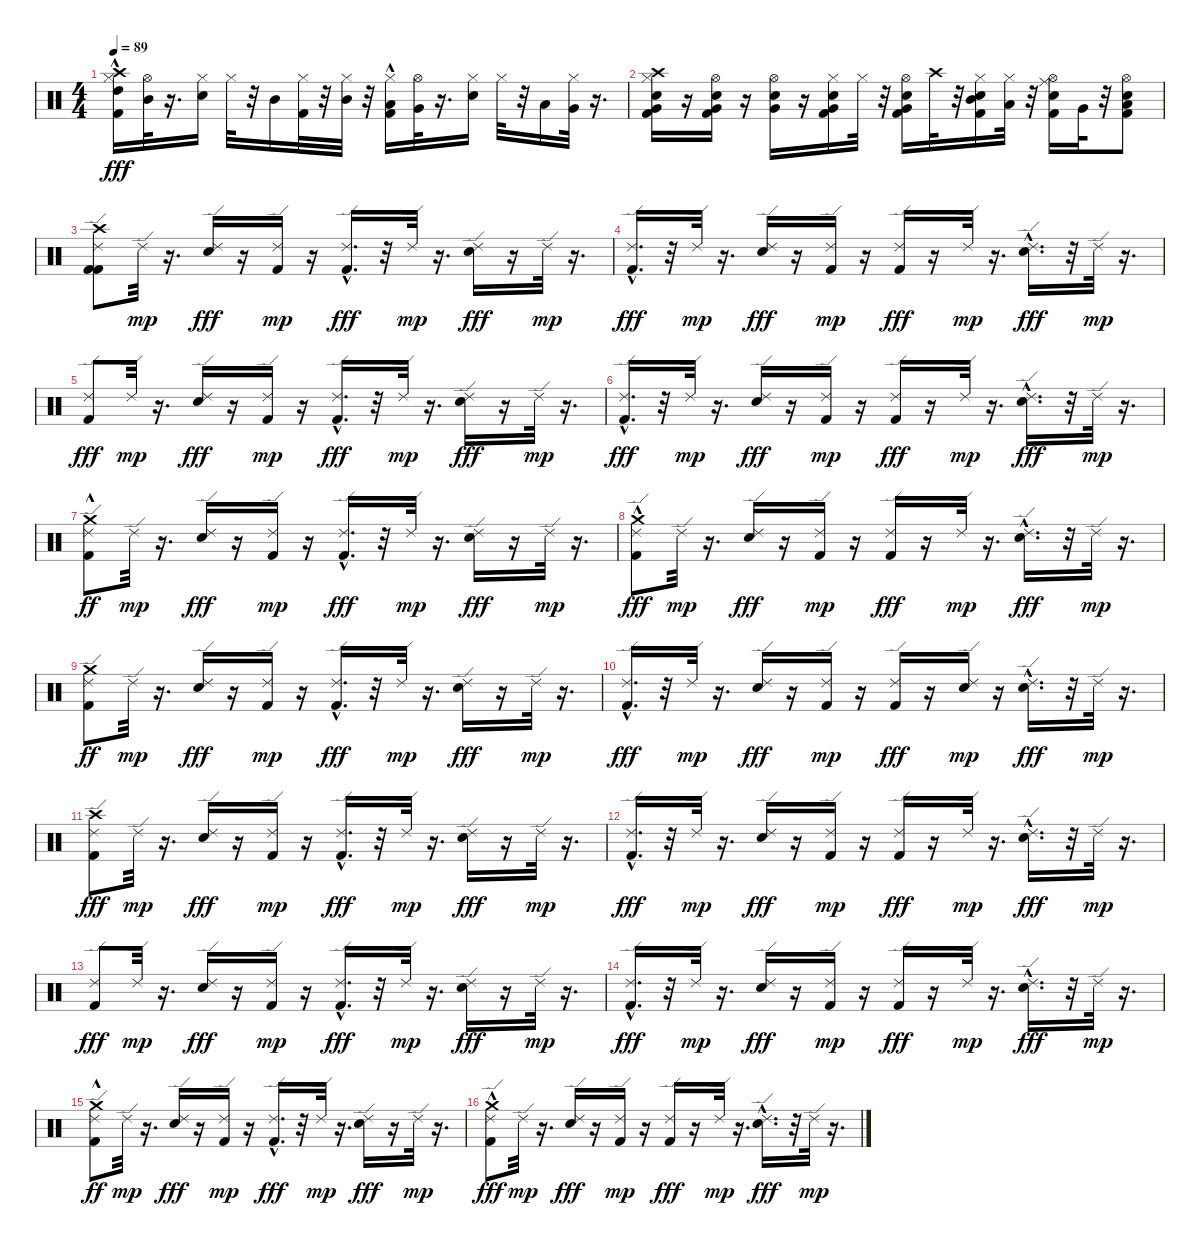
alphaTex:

\track "" {instrument percussion}
\staff {score}
\articulation defaults
\ts (4 4)
\tempo 89
\clef neutral
\ks c
("High Tom (hit)" "Crash high (hit)" "Kick (hit) 2"{hac} "Hi-Hat (closed)").16{dy fff} ("Mid Tom (hit)" "Hi-Hat (open)").32 r.16{d} ("Snare (hit) 2" "Hi-Hat (closed)").16 "Hi-Hat (closed)".32 r.32 "Mid Tom (hit)".16 ("Kick (hit) 2" "Hi-Hat (closed)").32 r.32 ("Mid Tom (hit)" "Hi-Hat (closed)").32 r.32 ("Low Tom (hit)" "Kick (hit) 2"{hac} "Hi-Hat (closed)").16 ("Very Low Tom (hit)" "Hi-Hat (open)").32 r.16{d} ("Snare (hit) 2" "Hi-Hat (closed)").16 "Hi-Hat (closed)".32 r.32 "Low Tom (hit)".16 ("Very Low Tom (hit)" "Hi-Hat (closed)").32 r.16{d} |
("Crash high (hit)" "Very Low Tom (hit)" "Kick (hit) 2" "Snare (hit) 2" "Hi-Hat (closed)").16 r.16 ("Very Low Tom (hit)" "Kick (hit) 2" "Snare (hit) 2" "Hi-Hat (open)").16 r.16 ("Very Low Tom (hit)" "Snare (hit) 2" "Hi-Hat (open)").16 r.16 ("Very Low Tom (hit)" "Kick (hit) 2" "Snare (hit) 2" "Hi-Hat (closed)").16 "Hi-Hat (closed)".32 r.32 ("Very Low Tom (hit)" "Kick (hit) 2" "Snare (hit) 2" "Hi-Hat (open)").16 "Crash high (hit)".32 r.32 ("Mid Tom (hit)" "Kick (hit) 2" "Snare (hit) 2" "Hi-Hat (closed)").16 ("Low Tom (hit)" "Hi-Hat (closed)").32 r.32 ("Ride (middle)" "Kick (hit) 2" "Snare (hit) 2" "Hi-Hat (open)").16 "Very Low Tom (hit)".32 r.32 ("Low Floor Tom (hit)" "Kick (hit) 2" "Snare (hit) 2" "Hi-Hat (open)").8 |
("Kick (hit) 2" "Kick (hit) 2" "Crash high (hit)" "Ride (edge) 2").8 "Ride (edge) 2".32{dy mp} r.16{d} ("Snare (hit) 2" "Ride (edge) 2").16{dy fff} r.16 ("Kick (hit) 2" "Ride (edge) 2").16{dy mp} r.16 ("Kick (hit) 2"{hac} "Ride (edge) 2").16{d dy fff} r.32 "Ride (edge) 2".32{dy mp} r.16{d} ("Snare (hit) 2" "Ride (edge) 2").16{dy fff} r.16 "Ride (edge) 2".32{dy mp} r.16{d} |
("Kick (hit) 2"{hac} "Ride (edge) 2").16{d dy fff} r.32 "Ride (edge) 2".32{dy mp} r.16{d} ("Snare (hit) 2" "Ride (edge) 2").16{dy fff} r.16 ("Kick (hit) 2" "Ride (edge) 2").16{dy mp} r.16 ("Kick (hit) 2" "Ride (edge) 2").16{dy fff} r.16 "Ride (edge) 2".32{dy mp} r.16{d} ("Snare (hit) 2"{hac} "Ride (edge) 2").16{d dy fff} r.32 "Ride (edge) 2".32{dy mp} r.16{d} |
("Kick (hit) 2" "Ride (edge) 2").8{dy fff} "Ride (edge) 2".32{dy mp} r.16{d} ("Snare (hit) 2" "Ride (edge) 2").16{dy fff} r.16 ("Kick (hit) 2" "Ride (edge) 2").16{dy mp} r.16 ("Kick (hit) 2"{hac} "Ride (edge) 2").16{d dy fff} r.32 "Ride (edge) 2".32{dy mp} r.16{d} ("Snare (hit) 2" "Ride (edge) 2").16{dy fff} r.16 "Ride (edge) 2".32{dy mp} r.16{d} |
("Kick (hit) 2"{hac} "Ride (edge) 2").16{d dy fff} r.32 "Ride (edge) 2".32{dy mp} r.16{d} ("Snare (hit) 2" "Ride (edge) 2").16{dy fff} r.16 ("Kick (hit) 2" "Ride (edge) 2").16{dy mp} r.16 ("Kick (hit) 2" "Ride (edge) 2").16{dy fff} r.16 "Ride (edge) 2".32{dy mp} r.16{d} ("Snare (hit) 2"{hac} "Ride (edge) 2").16{d dy fff} r.32 "Ride (edge) 2".32{dy mp} r.16{d} |
("Kick (hit) 2" "Ride (edge) 2" "Crash medium (hit)"{hac}).8{dy ff} "Ride (edge) 2".32{dy mp} r.16{d} ("Snare (hit) 2" "Ride (edge) 2").16{dy fff} r.16 ("Kick (hit) 2" "Ride (edge) 2").16{dy mp} r.16 ("Kick (hit) 2"{hac} "Ride (edge) 2").16{d dy fff} r.32 "Ride (edge) 2".32{dy mp} r.16{d} ("Snare (hit) 2" "Ride (edge) 2").16{dy fff} r.16 "Ride (edge) 2".32{dy mp} r.16{d} |
("Kick (hit) 2"{hac} "Ride (edge) 2" "Crash medium (hit)"{hac}).8{dy fff} "Ride (edge) 2".32{dy mp} r.16{d} ("Snare (hit) 2" "Ride (edge) 2").16{dy fff} r.16 ("Kick (hit) 2" "Ride (edge) 2").16{dy mp} r.16 ("Kick (hit) 2" "Ride (edge) 2").16{dy fff} r.16 "Ride (edge) 2".32{dy mp} r.16{d} ("Snare (hit) 2"{hac} "Ride (edge) 2").16{d dy fff} r.32 "Ride (edge) 2".32{dy mp} r.16{d} |
("Kick (hit) 2" "Ride (edge) 2" "Crash medium (hit)").8{dy ff} "Ride (edge) 2".32{dy mp} r.16{d} ("Snare (hit) 2" "Ride (edge) 2").16{dy fff} r.16 ("Kick (hit) 2" "Ride (edge) 2").16{dy mp} r.16 ("Kick (hit) 2"{hac} "Ride (edge) 2").16{d dy fff} r.32 "Ride (edge) 2".32{dy mp} r.16{d} ("Snare (hit) 2" "Ride (edge) 2").16{dy fff} r.16 "Ride (edge) 2".32{dy mp} r.16{d} |
("Kick (hit) 2"{hac} "Ride (edge) 2").16{d dy fff} r.32 "Ride (edge) 2".32{dy mp} r.16{d} ("Snare (hit) 2" "Ride (edge) 2").16{dy fff} r.16 ("Kick (hit) 2" "Ride (edge) 2").16{dy mp} r.16 ("Kick (hit) 2" "Ride (edge) 2").16{dy fff} r.16 ("Snare (hit) 2" "Ride (edge) 2").16{dy mp} r.16 ("Snare (hit) 2"{hac} "Ride (edge) 2").16{d dy fff} r.32 "Ride (edge) 2".32{dy mp} r.16{d} |
("Kick (hit) 2" "Crash high (hit)" "Ride (edge) 2").8{dy fff} "Ride (edge) 2".32{dy mp} r.16{d} ("Snare (hit) 2" "Ride (edge) 2").16{dy fff} r.16 ("Kick (hit) 2" "Ride (edge) 2").16{dy mp} r.16 ("Kick (hit) 2"{hac} "Ride (edge) 2").16{d dy fff} r.32 "Ride (edge) 2".32{dy mp} r.16{d} ("Snare (hit) 2" "Ride (edge) 2").16{dy fff} r.16 "Ride (edge) 2".32{dy mp} r.16{d} |
("Kick (hit) 2"{hac} "Ride (edge) 2").16{d dy fff} r.32 "Ride (edge) 2".32{dy mp} r.16{d} ("Snare (hit) 2" "Ride (edge) 2").16{dy fff} r.16 ("Kick (hit) 2" "Ride (edge) 2").16{dy mp} r.16 ("Kick (hit) 2" "Ride (edge) 2").16{dy fff} r.16 "Ride (edge) 2".32{dy mp} r.16{d} ("Snare (hit) 2"{hac} "Ride (edge) 2").16{d dy fff} r.32 "Ride (edge) 2".32{dy mp} r.16{d} |
("Kick (hit) 2" "Ride (edge) 2").8{dy fff} "Ride (edge) 2".32{dy mp} r.16{d} ("Snare (hit) 2" "Ride (edge) 2").16{dy fff} r.16 ("Kick (hit) 2" "Ride (edge) 2").16{dy mp} r.16 ("Kick (hit) 2"{hac} "Ride (edge) 2").16{d dy fff} r.32 "Ride (edge) 2".32{dy mp} r.16{d} ("Snare (hit) 2" "Ride (edge) 2").16{dy fff} r.16 "Ride (edge) 2".32{dy mp} r.16{d} |
("Kick (hit) 2"{hac} "Ride (edge) 2").16{d dy fff} r.32 "Ride (edge) 2".32{dy mp} r.16{d} ("Snare (hit) 2" "Ride (edge) 2").16{dy fff} r.16 ("Kick (hit) 2" "Ride (edge) 2").16{dy mp} r.16 ("Kick (hit) 2" "Ride (edge) 2").16{dy fff} r.16 "Ride (edge) 2".32{dy mp} r.16{d} ("Snare (hit) 2"{hac} "Ride (edge) 2").16{d dy fff} r.32 "Ride (edge) 2".32{dy mp} r.16{d} |
("Kick (hit) 2" "Ride (edge) 2" "Crash medium (hit)"{hac}).8{dy ff} "Ride (edge) 2".32{dy mp} r.16{d} ("Snare (hit) 2" "Ride (edge) 2").16{dy fff} r.16 ("Kick (hit) 2" "Ride (edge) 2").16{dy mp} r.16 ("Kick (hit) 2"{hac} "Ride (edge) 2").16{d dy fff} r.32 "Ride (edge) 2".32{dy mp} r.16{d} ("Snare (hit) 2" "Ride (edge) 2").16{dy fff} r.16 "Ride (edge) 2".32{dy mp} r.16{d} |
("Kick (hit) 2"{hac} "Ride (edge) 2" "Crash medium (hit)"{hac}).8{dy fff} "Ride (edge) 2".32{dy mp} r.16{d} ("Snare (hit) 2" "Ride (edge) 2").16{dy fff} r.16 ("Kick (hit) 2" "Ride (edge) 2").16{dy mp} r.16 ("Kick (hit) 2" "Ride (edge) 2").16{dy fff} r.16 "Ride (edge) 2".32{dy mp} r.16{d} ("Snare (hit) 2"{hac} "Ride (edge) 2").16{d dy fff} r.32 "Ride (edge) 2".32{dy mp} r.16{d}
